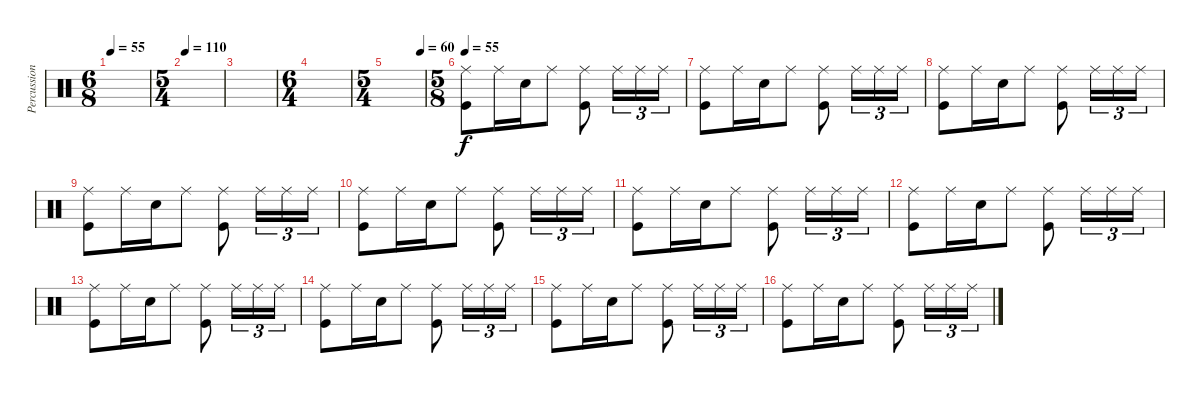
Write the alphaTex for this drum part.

\track ("Percussions" "Percussion") {instrument percussion}
\staff {score}
\articulation defaults
\ts (6 8)
\tempo 55
\clef neutral
\ks c
|
\ts (5 4)
\tempo 110
|
|
\ts (6 4)
|
\ts (5 4)
\tempo (60 0.9)
|
\ts (5 8)
\tempo 55
("Ride (middle)" "Kick (hit)").8 "Ride (middle)".16 "Snare (hit) 2".16 "Ride (middle)".8 ("Ride (middle)" "Kick (hit)").8 "Ride (middle)".16{tu (3 2)} "Ride (middle)".16{tu (3 2)} "Ride (middle)".16{tu (3 2)} |
("Ride (middle)" "Kick (hit)").8 "Ride (middle)".16 "Snare (hit) 2".16 "Ride (middle)".8 ("Ride (middle)" "Kick (hit)").8 "Ride (middle)".16{tu (3 2)} "Ride (middle)".16{tu (3 2)} "Ride (middle)".16{tu (3 2)} |
("Ride (middle)" "Kick (hit)").8 "Ride (middle)".16 "Snare (hit) 2".16 "Ride (middle)".8 ("Ride (middle)" "Kick (hit)").8 "Ride (middle)".16{tu (3 2)} "Ride (middle)".16{tu (3 2)} "Ride (middle)".16{tu (3 2)} |
("Ride (middle)" "Kick (hit)").8 "Ride (middle)".16 "Snare (hit) 2".16 "Ride (middle)".8 ("Ride (middle)" "Kick (hit)").8 "Ride (middle)".16{tu (3 2)} "Ride (middle)".16{tu (3 2)} "Ride (middle)".16{tu (3 2)} |
("Ride (middle)" "Kick (hit)").8 "Ride (middle)".16 "Snare (hit) 2".16 "Ride (middle)".8 ("Ride (middle)" "Kick (hit)").8 "Ride (middle)".16{tu (3 2)} "Ride (middle)".16{tu (3 2)} "Ride (middle)".16{tu (3 2)} |
("Ride (middle)" "Kick (hit)").8 "Ride (middle)".16 "Snare (hit) 2".16 "Ride (middle)".8 ("Ride (middle)" "Kick (hit)").8 "Ride (middle)".16{tu (3 2)} "Ride (middle)".16{tu (3 2)} "Ride (middle)".16{tu (3 2)} |
("Ride (middle)" "Kick (hit)").8 "Ride (middle)".16 "Snare (hit) 2".16 "Ride (middle)".8 ("Ride (middle)" "Kick (hit)").8 "Ride (middle)".16{tu (3 2)} "Ride (middle)".16{tu (3 2)} "Ride (middle)".16{tu (3 2)} |
("Ride (middle)" "Kick (hit)").8 "Ride (middle)".16 "Snare (hit) 2".16 "Ride (middle)".8 ("Ride (middle)" "Kick (hit)").8 "Ride (middle)".16{tu (3 2)} "Ride (middle)".16{tu (3 2)} "Ride (middle)".16{tu (3 2)} |
("Ride (middle)" "Kick (hit)").8 "Ride (middle)".16 "Snare (hit) 2".16 "Ride (middle)".8 ("Ride (middle)" "Kick (hit)").8 "Ride (middle)".16{tu (3 2)} "Ride (middle)".16{tu (3 2)} "Ride (middle)".16{tu (3 2)} |
("Ride (middle)" "Kick (hit)").8 "Ride (middle)".16 "Snare (hit) 2".16 "Ride (middle)".8 ("Ride (middle)" "Kick (hit)").8 "Ride (middle)".16{tu (3 2)} "Ride (middle)".16{tu (3 2)} "Ride (middle)".16{tu (3 2)} |
("Ride (middle)" "Kick (hit)").8 "Ride (middle)".16 "Snare (hit) 2".16 "Ride (middle)".8 ("Ride (middle)" "Kick (hit)").8 "Ride (middle)".16{tu (3 2)} "Ride (middle)".16{tu (3 2)} "Ride (middle)".16{tu (3 2)}
